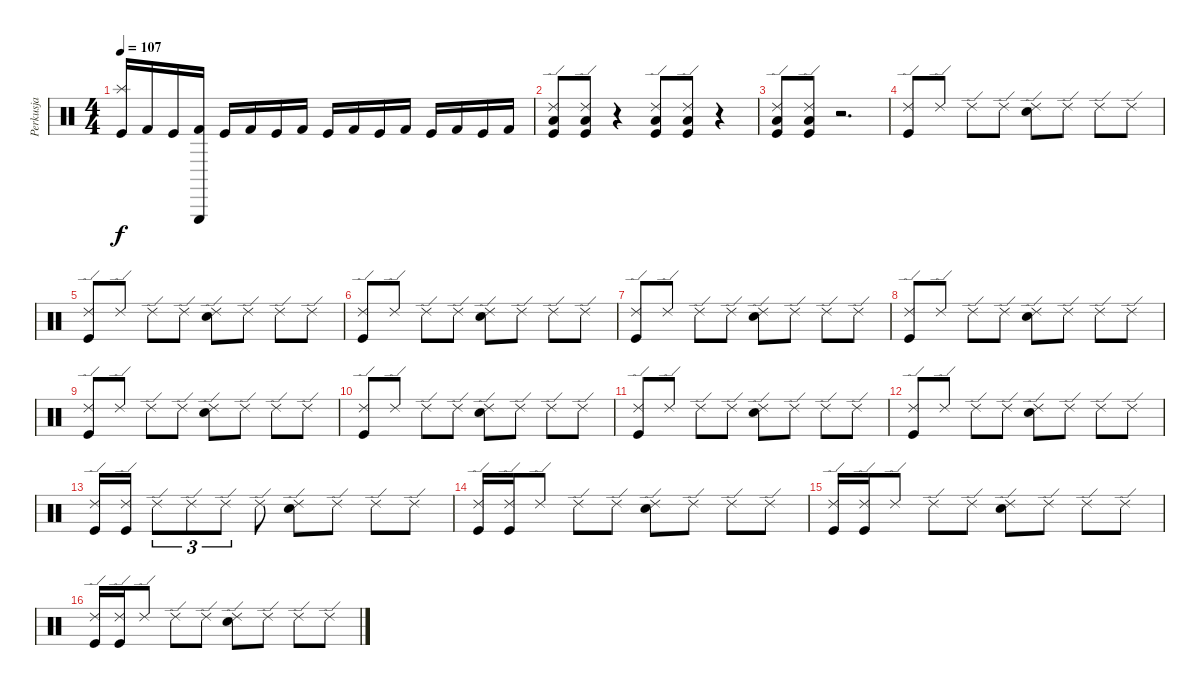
\track ("Perkusja" "Perkusja") {instrument percussion}
\staff {score}
\articulation defaults
\ts (4 4)
\tempo 107
\clef neutral
\ks c
("Splash (hit)" "Kick (hit)").16{dy f} "Kick (hit) 2".16 "Kick (hit)".16 ("Triangle (hit)" "Kick (hit) 2").16 "Kick (hit)".16 "Kick (hit) 2".16 "Kick (hit)".16 "Kick (hit) 2".16 "Kick (hit)".16 "Kick (hit) 2".16 "Kick (hit)".16 "Kick (hit) 2".16 "Kick (hit)".16 "Kick (hit) 2".16 "Kick (hit)".16 "Kick (hit) 2".16 |
("Ride (edge) 2" "Low Floor Tom (hit)" "Kick (hit)").8 ("Ride (edge) 2" "Low Floor Tom (hit)" "Kick (hit)").8 r.4 ("Ride (edge) 2" "Low Floor Tom (hit)" "Kick (hit)").8 ("Ride (edge) 2" "Low Floor Tom (hit)" "Kick (hit)").8 r.4 |
("Ride (edge) 2" "Low Floor Tom (hit)" "Kick (hit)").8 ("Ride (edge) 2" "Low Floor Tom (hit)" "Kick (hit)").8 r.2{d} |
("Ride (edge) 2" "Kick (hit)").8 "Ride (edge) 2".8 "Ride (edge) 2".8 "Ride (edge) 2".8 ("Ride (edge) 2" "Electric Snare (hit)").8 "Ride (edge) 2".8 "Ride (edge) 2".8 "Ride (edge) 2".8 |
("Ride (edge) 2" "Kick (hit)").8 "Ride (edge) 2".8 "Ride (edge) 2".8 "Ride (edge) 2".8 ("Ride (edge) 2" "Electric Snare (hit)").8 "Ride (edge) 2".8 "Ride (edge) 2".8 "Ride (edge) 2".8 |
("Ride (edge) 2" "Kick (hit)").8 "Ride (edge) 2".8 "Ride (edge) 2".8 "Ride (edge) 2".8 ("Ride (edge) 2" "Electric Snare (hit)").8 "Ride (edge) 2".8 "Ride (edge) 2".8 "Ride (edge) 2".8 |
("Ride (edge) 2" "Kick (hit)").8 "Ride (edge) 2".8 "Ride (edge) 2".8 "Ride (edge) 2".8 ("Ride (edge) 2" "Electric Snare (hit)").8 "Ride (edge) 2".8 "Ride (edge) 2".8 "Ride (edge) 2".8 |
("Ride (edge) 2" "Kick (hit)").8 "Ride (edge) 2".8 "Ride (edge) 2".8 "Ride (edge) 2".8 ("Ride (edge) 2" "Electric Snare (hit)").8 "Ride (edge) 2".8 "Ride (edge) 2".8 "Ride (edge) 2".8 |
("Ride (edge) 2" "Kick (hit)").8 "Ride (edge) 2".8 "Ride (edge) 2".8 "Ride (edge) 2".8 ("Ride (edge) 2" "Electric Snare (hit)").8 "Ride (edge) 2".8 "Ride (edge) 2".8 "Ride (edge) 2".8 |
("Ride (edge) 2" "Kick (hit)").8 "Ride (edge) 2".8 "Ride (edge) 2".8 "Ride (edge) 2".8 ("Ride (edge) 2" "Electric Snare (hit)").8 "Ride (edge) 2".8 "Ride (edge) 2".8 "Ride (edge) 2".8 |
("Ride (edge) 2" "Kick (hit)").8 "Ride (edge) 2".8 "Ride (edge) 2".8 "Ride (edge) 2".8 ("Ride (edge) 2" "Electric Snare (hit)").8 "Ride (edge) 2".8 "Ride (edge) 2".8 "Ride (edge) 2".8 |
("Ride (edge) 2" "Kick (hit)").8 "Ride (edge) 2".8 "Ride (edge) 2".8 "Ride (edge) 2".8 ("Ride (edge) 2" "Electric Snare (hit)").8 "Ride (edge) 2".8 "Ride (edge) 2".8 "Ride (edge) 2".8 |
("Ride (edge) 2" "Kick (hit)").16 ("Ride (edge) 2" "Kick (hit)").16 "Ride (edge) 2".8{tu (3 2)} "Ride (edge) 2".8{tu (3 2)} "Ride (edge) 2".8{tu (3 2)} "Ride (edge) 2".8 ("Ride (edge) 2" "Electric Snare (hit)").8 "Ride (edge) 2".8 "Ride (edge) 2".8 "Ride (edge) 2".8 |
("Ride (edge) 2" "Kick (hit)").16 ("Ride (edge) 2" "Kick (hit)").16 "Ride (edge) 2".8 "Ride (edge) 2".8 "Ride (edge) 2".8 ("Ride (edge) 2" "Electric Snare (hit)").8 "Ride (edge) 2".8 "Ride (edge) 2".8 "Ride (edge) 2".8 |
("Ride (edge) 2" "Kick (hit)").16 ("Ride (edge) 2" "Kick (hit)").16 "Ride (edge) 2".8 "Ride (edge) 2".8 "Ride (edge) 2".8 ("Ride (edge) 2" "Electric Snare (hit)").8 "Ride (edge) 2".8 "Ride (edge) 2".8 "Ride (edge) 2".8 |
("Ride (edge) 2" "Kick (hit)").16 ("Ride (edge) 2" "Kick (hit)").16 "Ride (edge) 2".8 "Ride (edge) 2".8 "Ride (edge) 2".8 ("Ride (edge) 2" "Electric Snare (hit)").8 "Ride (edge) 2".8 "Ride (edge) 2".8 "Ride (edge) 2".8
